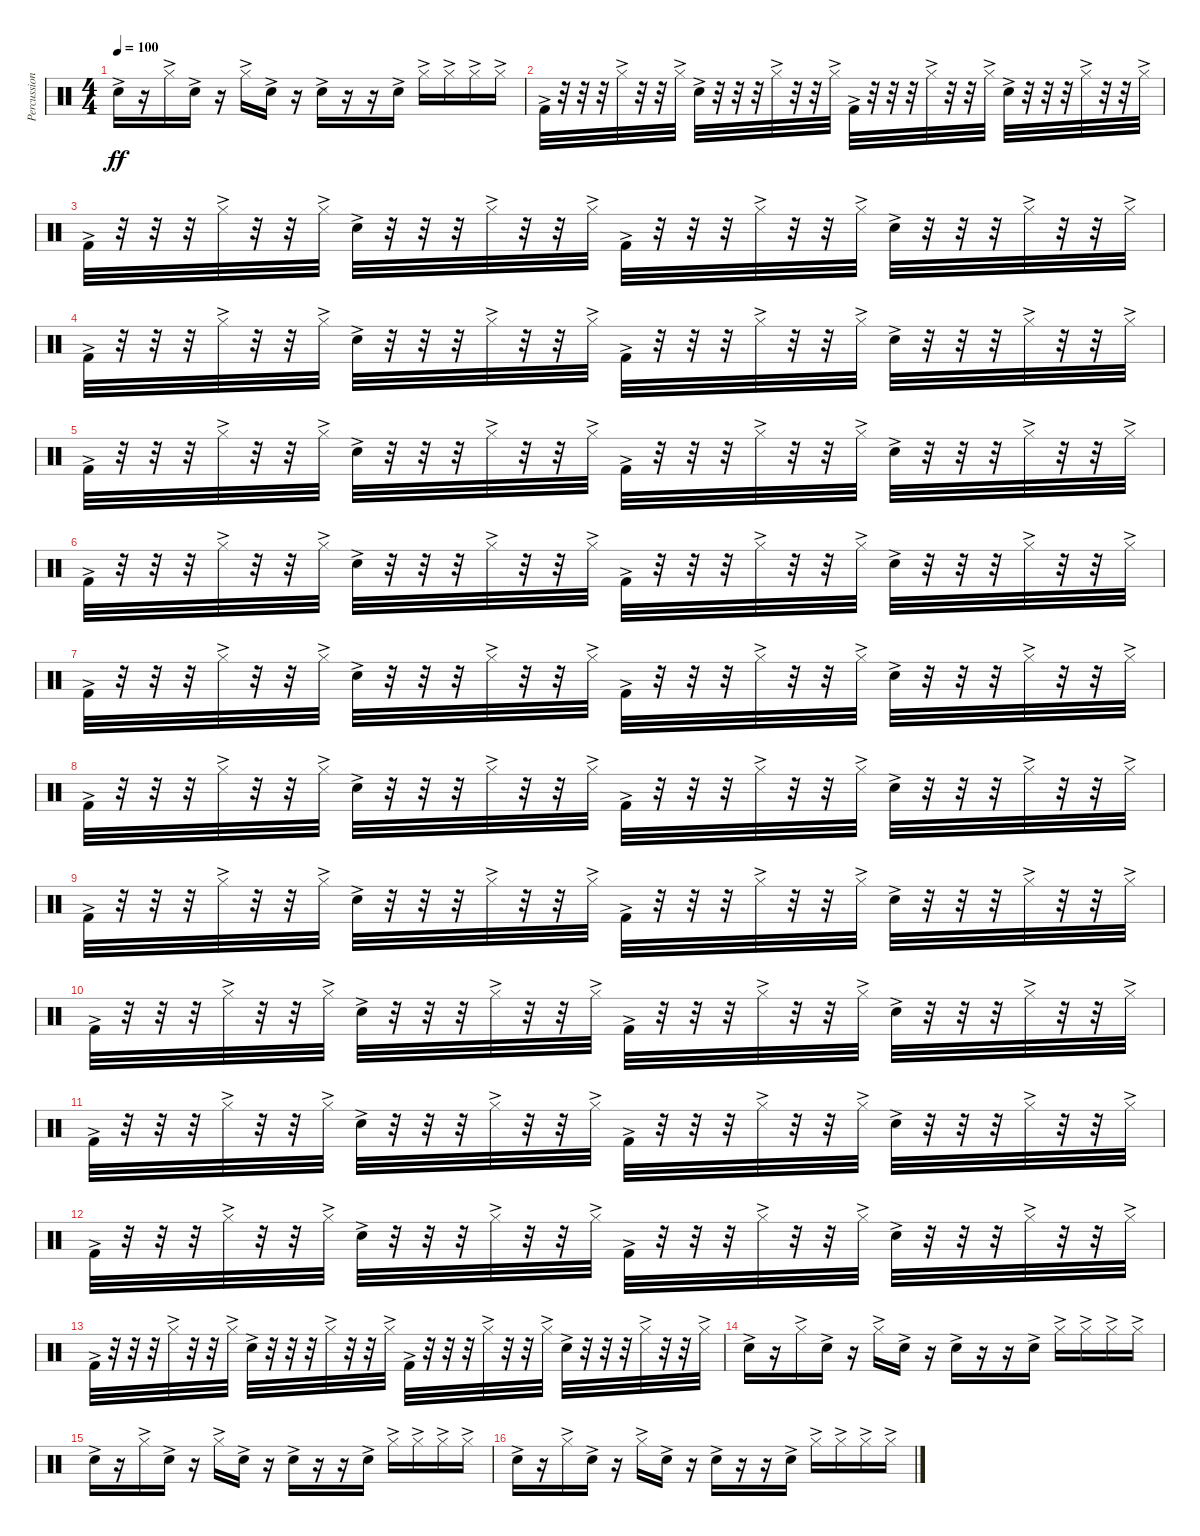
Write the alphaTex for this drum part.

\track ("Percussion" "Percussion") {instrument percussion bank 2}
\staff {score}
\articulation defaults
\ts (4 4)
\tempo 100
\clef neutral
\ks c "Snare (hit) 2"{ac}.16{dy ff}
r.16 "Hi-Hat (closed)"{ac}.16 "Snare (hit) 2"{ac}.16 r.16 "Hi-Hat (closed)"{ac}.16 "Snare (hit) 2"{ac}.16 r.16 "Snare (hit) 2"{ac}.16 r.16 r.16 "Snare (hit) 2"{ac}.16 "Hi-Hat (closed)"{ac}.16 "Hi-Hat (closed)"{ac}.16 "Hi-Hat (closed)"{ac}.16 "Hi-Hat (closed)"{ac}.16 |
"Kick (hit) 2"{ac}.32 r.32 r.32 r.32 "Hi-Hat (closed)"{ac}.32 r.32 r.32 "Hi-Hat (closed)"{ac}.32 "Snare (hit) 2"{ac}.32 r.32 r.32 r.32 "Hi-Hat (closed)"{ac}.32 r.32 r.32 "Hi-Hat (closed)"{ac}.32 "Kick (hit) 2"{ac}.32 r.32 r.32 r.32 "Hi-Hat (closed)"{ac}.32 r.32 r.32 "Hi-Hat (closed)"{ac}.32 "Snare (hit) 2"{ac}.32 r.32 r.32 r.32 "Hi-Hat (closed)"{ac}.32 r.32 r.32 "Hi-Hat (closed)"{ac}.32 |
"Kick (hit) 2"{ac}.32 r.32 r.32 r.32 "Hi-Hat (closed)"{ac}.32 r.32 r.32 "Hi-Hat (closed)"{ac}.32 "Snare (hit) 2"{ac}.32 r.32 r.32 r.32 "Hi-Hat (closed)"{ac}.32 r.32 r.32 "Hi-Hat (closed)"{ac}.32 "Kick (hit) 2"{ac}.32 r.32 r.32 r.32 "Hi-Hat (closed)"{ac}.32 r.32 r.32 "Hi-Hat (closed)"{ac}.32 "Snare (hit) 2"{ac}.32 r.32 r.32 r.32 "Hi-Hat (closed)"{ac}.32 r.32 r.32 "Hi-Hat (closed)"{ac}.32 |
"Kick (hit) 2"{ac}.32 r.32 r.32 r.32 "Hi-Hat (closed)"{ac}.32 r.32 r.32 "Hi-Hat (closed)"{ac}.32 "Snare (hit) 2"{ac}.32 r.32 r.32 r.32 "Hi-Hat (closed)"{ac}.32 r.32 r.32 "Hi-Hat (closed)"{ac}.32 "Kick (hit) 2"{ac}.32 r.32 r.32 r.32 "Hi-Hat (closed)"{ac}.32 r.32 r.32 "Hi-Hat (closed)"{ac}.32 "Snare (hit) 2"{ac}.32 r.32 r.32 r.32 "Hi-Hat (closed)"{ac}.32 r.32 r.32 "Hi-Hat (closed)"{ac}.32 |
"Kick (hit) 2"{ac}.32 r.32 r.32 r.32 "Hi-Hat (closed)"{ac}.32 r.32 r.32 "Hi-Hat (closed)"{ac}.32 "Snare (hit) 2"{ac}.32 r.32 r.32 r.32 "Hi-Hat (closed)"{ac}.32 r.32 r.32 "Hi-Hat (closed)"{ac}.32 "Kick (hit) 2"{ac}.32 r.32 r.32 r.32 "Hi-Hat (closed)"{ac}.32 r.32 r.32 "Hi-Hat (closed)"{ac}.32 "Snare (hit) 2"{ac}.32 r.32 r.32 r.32 "Hi-Hat (closed)"{ac}.32 r.32 r.32 "Hi-Hat (closed)"{ac}.32 |
"Kick (hit) 2"{ac}.32 r.32 r.32 r.32 "Hi-Hat (closed)"{ac}.32 r.32 r.32 "Hi-Hat (closed)"{ac}.32 "Snare (hit) 2"{ac}.32 r.32 r.32 r.32 "Hi-Hat (closed)"{ac}.32 r.32 r.32 "Hi-Hat (closed)"{ac}.32 "Kick (hit) 2"{ac}.32 r.32 r.32 r.32 "Hi-Hat (closed)"{ac}.32 r.32 r.32 "Hi-Hat (closed)"{ac}.32 "Snare (hit) 2"{ac}.32 r.32 r.32 r.32 "Hi-Hat (closed)"{ac}.32 r.32 r.32 "Hi-Hat (closed)"{ac}.32 |
"Kick (hit) 2"{ac}.32 r.32 r.32 r.32 "Hi-Hat (closed)"{ac}.32 r.32 r.32 "Hi-Hat (closed)"{ac}.32 "Snare (hit) 2"{ac}.32 r.32 r.32 r.32 "Hi-Hat (closed)"{ac}.32 r.32 r.32 "Hi-Hat (closed)"{ac}.32 "Kick (hit) 2"{ac}.32 r.32 r.32 r.32 "Hi-Hat (closed)"{ac}.32 r.32 r.32 "Hi-Hat (closed)"{ac}.32 "Snare (hit) 2"{ac}.32 r.32 r.32 r.32 "Hi-Hat (closed)"{ac}.32 r.32 r.32 "Hi-Hat (closed)"{ac}.32 |
"Kick (hit) 2"{ac}.32 r.32 r.32 r.32 "Hi-Hat (closed)"{ac}.32 r.32 r.32 "Hi-Hat (closed)"{ac}.32 "Snare (hit) 2"{ac}.32 r.32 r.32 r.32 "Hi-Hat (closed)"{ac}.32 r.32 r.32 "Hi-Hat (closed)"{ac}.32 "Kick (hit) 2"{ac}.32 r.32 r.32 r.32 "Hi-Hat (closed)"{ac}.32 r.32 r.32 "Hi-Hat (closed)"{ac}.32 "Snare (hit) 2"{ac}.32 r.32 r.32 r.32 "Hi-Hat (closed)"{ac}.32 r.32 r.32 "Hi-Hat (closed)"{ac}.32 |
"Kick (hit) 2"{ac}.32 r.32 r.32 r.32 "Hi-Hat (closed)"{ac}.32 r.32 r.32 "Hi-Hat (closed)"{ac}.32 "Snare (hit) 2"{ac}.32 r.32 r.32 r.32 "Hi-Hat (closed)"{ac}.32 r.32 r.32 "Hi-Hat (closed)"{ac}.32 "Kick (hit) 2"{ac}.32 r.32 r.32 r.32 "Hi-Hat (closed)"{ac}.32 r.32 r.32 "Hi-Hat (closed)"{ac}.32 "Snare (hit) 2"{ac}.32 r.32 r.32 r.32 "Hi-Hat (closed)"{ac}.32 r.32 r.32 "Hi-Hat (closed)"{ac}.32 |
"Kick (hit) 2"{ac}.32 r.32 r.32 r.32 "Hi-Hat (closed)"{ac}.32 r.32 r.32 "Hi-Hat (closed)"{ac}.32 "Snare (hit) 2"{ac}.32 r.32 r.32 r.32 "Hi-Hat (closed)"{ac}.32 r.32 r.32 "Hi-Hat (closed)"{ac}.32 "Kick (hit) 2"{ac}.32 r.32 r.32 r.32 "Hi-Hat (closed)"{ac}.32 r.32 r.32 "Hi-Hat (closed)"{ac}.32 "Snare (hit) 2"{ac}.32 r.32 r.32 r.32 "Hi-Hat (closed)"{ac}.32 r.32 r.32 "Hi-Hat (closed)"{ac}.32 |
"Kick (hit) 2"{ac}.32 r.32 r.32 r.32 "Hi-Hat (closed)"{ac}.32 r.32 r.32 "Hi-Hat (closed)"{ac}.32 "Snare (hit) 2"{ac}.32 r.32 r.32 r.32 "Hi-Hat (closed)"{ac}.32 r.32 r.32 "Hi-Hat (closed)"{ac}.32 "Kick (hit) 2"{ac}.32 r.32 r.32 r.32 "Hi-Hat (closed)"{ac}.32 r.32 r.32 "Hi-Hat (closed)"{ac}.32 "Snare (hit) 2"{ac}.32 r.32 r.32 r.32 "Hi-Hat (closed)"{ac}.32 r.32 r.32 "Hi-Hat (closed)"{ac}.32 |
"Kick (hit) 2"{ac}.32 r.32 r.32 r.32 "Hi-Hat (closed)"{ac}.32 r.32 r.32 "Hi-Hat (closed)"{ac}.32 "Snare (hit) 2"{ac}.32 r.32 r.32 r.32 "Hi-Hat (closed)"{ac}.32 r.32 r.32 "Hi-Hat (closed)"{ac}.32 "Kick (hit) 2"{ac}.32 r.32 r.32 r.32 "Hi-Hat (closed)"{ac}.32 r.32 r.32 "Hi-Hat (closed)"{ac}.32 "Snare (hit) 2"{ac}.32 r.32 r.32 r.32 "Hi-Hat (closed)"{ac}.32 r.32 r.32 "Hi-Hat (closed)"{ac}.32 |
"Kick (hit) 2"{ac}.32 r.32 r.32 r.32 "Hi-Hat (closed)"{ac}.32 r.32 r.32 "Hi-Hat (closed)"{ac}.32 "Snare (hit) 2"{ac}.32 r.32 r.32 r.32 "Hi-Hat (closed)"{ac}.32 r.32 r.32 "Hi-Hat (closed)"{ac}.32 "Kick (hit) 2"{ac}.32 r.32 r.32 r.32 "Hi-Hat (closed)"{ac}.32 r.32 r.32 "Hi-Hat (closed)"{ac}.32 "Snare (hit) 2"{ac}.32 r.32 r.32 r.32 "Hi-Hat (closed)"{ac}.32 r.32 r.32 "Hi-Hat (closed)"{ac}.32 |
"Snare (hit) 2"{ac}.16 r.16 "Hi-Hat (closed)"{ac}.16 "Snare (hit) 2"{ac}.16 r.16 "Hi-Hat (closed)"{ac}.16 "Snare (hit) 2"{ac}.16 r.16 "Snare (hit) 2"{ac}.16 r.16 r.16 "Snare (hit) 2"{ac}.16 "Hi-Hat (closed)"{ac}.16 "Hi-Hat (closed)"{ac}.16 "Hi-Hat (closed)"{ac}.16 "Hi-Hat (closed)"{ac}.16 |
"Snare (hit) 2"{ac}.16 r.16 "Hi-Hat (closed)"{ac}.16 "Snare (hit) 2"{ac}.16 r.16 "Hi-Hat (closed)"{ac}.16 "Snare (hit) 2"{ac}.16 r.16 "Snare (hit) 2"{ac}.16 r.16 r.16 "Snare (hit) 2"{ac}.16 "Hi-Hat (closed)"{ac}.16 "Hi-Hat (closed)"{ac}.16 "Hi-Hat (closed)"{ac}.16 "Hi-Hat (closed)"{ac}.16 |
"Snare (hit) 2"{ac}.16 r.16 "Hi-Hat (closed)"{ac}.16 "Snare (hit) 2"{ac}.16 r.16 "Hi-Hat (closed)"{ac}.16 "Snare (hit) 2"{ac}.16 r.16 "Snare (hit) 2"{ac}.16 r.16 r.16 "Snare (hit) 2"{ac}.16 "Hi-Hat (closed)"{ac}.16 "Hi-Hat (closed)"{ac}.16 "Hi-Hat (closed)"{ac}.16 "Hi-Hat (closed)"{ac}.16
